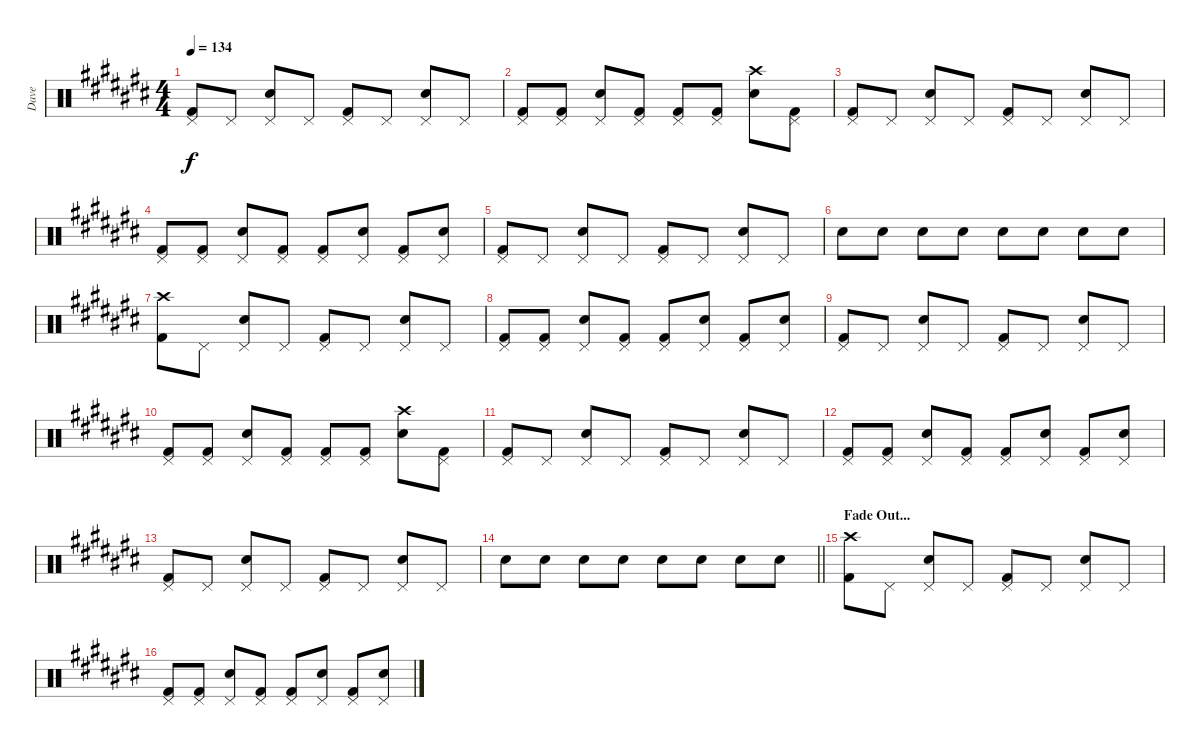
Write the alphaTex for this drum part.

\track ("Dave" "Dave") {instrument percussion}
\staff {score}
\articulation defaults
\ts (4 4)
\tempo 134
\clef neutral
\ks c#
("Pedal Hi-Hat (hit)" "Kick (hit) 2").8{dy f} "Pedal Hi-Hat (hit)".8 ("Pedal Hi-Hat (hit)" "Snare (hit) 2").8 "Pedal Hi-Hat (hit)".8 ("Pedal Hi-Hat (hit)" "Kick (hit) 2").8 "Pedal Hi-Hat (hit)".8 ("Pedal Hi-Hat (hit)" "Snare (hit) 2").8 "Pedal Hi-Hat (hit)".8 |
("Pedal Hi-Hat (hit)" "Kick (hit) 2").8 ("Pedal Hi-Hat (hit)" "Kick (hit) 2").8 ("Pedal Hi-Hat (hit)" "Snare (hit) 2").8 ("Pedal Hi-Hat (hit)" "Kick (hit) 2").8 ("Pedal Hi-Hat (hit)" "Kick (hit) 2").8 ("Pedal Hi-Hat (hit)" "Kick (hit) 2").8 ("Crash high (hit)" "Snare (hit) 2").8 ("Pedal Hi-Hat (hit)" "Kick (hit) 2").8 |
("Pedal Hi-Hat (hit)" "Kick (hit) 2").8 "Pedal Hi-Hat (hit)".8 ("Pedal Hi-Hat (hit)" "Snare (hit) 2").8 "Pedal Hi-Hat (hit)".8 ("Pedal Hi-Hat (hit)" "Kick (hit) 2").8 "Pedal Hi-Hat (hit)".8 ("Pedal Hi-Hat (hit)" "Snare (hit) 2").8 "Pedal Hi-Hat (hit)".8 |
("Pedal Hi-Hat (hit)" "Kick (hit) 2").8 ("Pedal Hi-Hat (hit)" "Kick (hit) 2").8 ("Pedal Hi-Hat (hit)" "Snare (hit) 2").8 ("Pedal Hi-Hat (hit)" "Kick (hit) 2").8 ("Pedal Hi-Hat (hit)" "Kick (hit) 2").8 ("Pedal Hi-Hat (hit)" "Snare (hit) 2").8 ("Pedal Hi-Hat (hit)" "Kick (hit) 2").8 ("Pedal Hi-Hat (hit)" "Snare (hit) 2").8 |
("Pedal Hi-Hat (hit)" "Kick (hit) 2").8 "Pedal Hi-Hat (hit)".8 ("Pedal Hi-Hat (hit)" "Snare (hit) 2").8 "Pedal Hi-Hat (hit)".8 ("Pedal Hi-Hat (hit)" "Kick (hit) 2").8 "Pedal Hi-Hat (hit)".8 ("Pedal Hi-Hat (hit)" "Snare (hit) 2").8 "Pedal Hi-Hat (hit)".8 |
"Snare (hit) 2".8 "Snare (hit) 2".8 "Snare (hit) 2".8 "Snare (hit) 2".8 "Snare (hit) 2".8 "Snare (hit) 2".8 "Snare (hit) 2".8 "Snare (hit) 2".8 |
("Crash high (hit)" "Kick (hit) 2").8 "Pedal Hi-Hat (hit)".8 ("Pedal Hi-Hat (hit)" "Snare (hit) 2").8 "Pedal Hi-Hat (hit)".8 ("Pedal Hi-Hat (hit)" "Kick (hit) 2").8 "Pedal Hi-Hat (hit)".8 ("Pedal Hi-Hat (hit)" "Snare (hit) 2").8 "Pedal Hi-Hat (hit)".8 |
("Pedal Hi-Hat (hit)" "Kick (hit) 2").8 ("Pedal Hi-Hat (hit)" "Kick (hit) 2").8 ("Pedal Hi-Hat (hit)" "Snare (hit) 2").8 ("Pedal Hi-Hat (hit)" "Kick (hit) 2").8 ("Pedal Hi-Hat (hit)" "Kick (hit) 2").8 ("Pedal Hi-Hat (hit)" "Snare (hit) 2").8 ("Pedal Hi-Hat (hit)" "Kick (hit) 2").8 ("Pedal Hi-Hat (hit)" "Snare (hit) 2").8 |
("Pedal Hi-Hat (hit)" "Kick (hit) 2").8 "Pedal Hi-Hat (hit)".8 ("Pedal Hi-Hat (hit)" "Snare (hit) 2").8 "Pedal Hi-Hat (hit)".8 ("Pedal Hi-Hat (hit)" "Kick (hit) 2").8 "Pedal Hi-Hat (hit)".8 ("Pedal Hi-Hat (hit)" "Snare (hit) 2").8 "Pedal Hi-Hat (hit)".8 |
("Pedal Hi-Hat (hit)" "Kick (hit) 2").8 ("Pedal Hi-Hat (hit)" "Kick (hit) 2").8 ("Pedal Hi-Hat (hit)" "Snare (hit) 2").8 ("Pedal Hi-Hat (hit)" "Kick (hit) 2").8 ("Pedal Hi-Hat (hit)" "Kick (hit) 2").8 ("Pedal Hi-Hat (hit)" "Kick (hit) 2").8 ("Crash high (hit)" "Snare (hit) 2").8 ("Pedal Hi-Hat (hit)" "Kick (hit) 2").8 |
("Pedal Hi-Hat (hit)" "Kick (hit) 2").8 "Pedal Hi-Hat (hit)".8 ("Pedal Hi-Hat (hit)" "Snare (hit) 2").8 "Pedal Hi-Hat (hit)".8 ("Pedal Hi-Hat (hit)" "Kick (hit) 2").8 "Pedal Hi-Hat (hit)".8 ("Pedal Hi-Hat (hit)" "Snare (hit) 2").8 "Pedal Hi-Hat (hit)".8 |
("Pedal Hi-Hat (hit)" "Kick (hit) 2").8 ("Pedal Hi-Hat (hit)" "Kick (hit) 2").8 ("Pedal Hi-Hat (hit)" "Snare (hit) 2").8 ("Pedal Hi-Hat (hit)" "Kick (hit) 2").8 ("Pedal Hi-Hat (hit)" "Kick (hit) 2").8 ("Pedal Hi-Hat (hit)" "Snare (hit) 2").8 ("Pedal Hi-Hat (hit)" "Kick (hit) 2").8 ("Pedal Hi-Hat (hit)" "Snare (hit) 2").8 |
("Pedal Hi-Hat (hit)" "Kick (hit) 2").8 "Pedal Hi-Hat (hit)".8 ("Pedal Hi-Hat (hit)" "Snare (hit) 2").8 "Pedal Hi-Hat (hit)".8 ("Pedal Hi-Hat (hit)" "Kick (hit) 2").8 "Pedal Hi-Hat (hit)".8 ("Pedal Hi-Hat (hit)" "Snare (hit) 2").8 "Pedal Hi-Hat (hit)".8 |
\barLineRight lightlight "Snare (hit) 2".8 "Snare (hit) 2".8 "Snare (hit) 2".8 "Snare (hit) 2".8 "Snare (hit) 2".8 "Snare (hit) 2".8 "Snare (hit) 2".8 "Snare (hit) 2".8
|
\section ("" "Fade Out...")
("Crash high (hit)" "Kick (hit) 2").8 "Pedal Hi-Hat (hit)".8 ("Pedal Hi-Hat (hit)" "Snare (hit) 2").8 "Pedal Hi-Hat (hit)".8 ("Pedal Hi-Hat (hit)" "Kick (hit) 2").8 "Pedal Hi-Hat (hit)".8 ("Pedal Hi-Hat (hit)" "Snare (hit) 2").8 "Pedal Hi-Hat (hit)".8 |
("Pedal Hi-Hat (hit)" "Kick (hit) 2").8 ("Pedal Hi-Hat (hit)" "Kick (hit) 2").8 ("Pedal Hi-Hat (hit)" "Snare (hit) 2").8 ("Pedal Hi-Hat (hit)" "Kick (hit) 2").8 ("Pedal Hi-Hat (hit)" "Kick (hit) 2").8 ("Pedal Hi-Hat (hit)" "Snare (hit) 2").8 ("Pedal Hi-Hat (hit)" "Kick (hit) 2").8 ("Pedal Hi-Hat (hit)" "Snare (hit) 2").8
